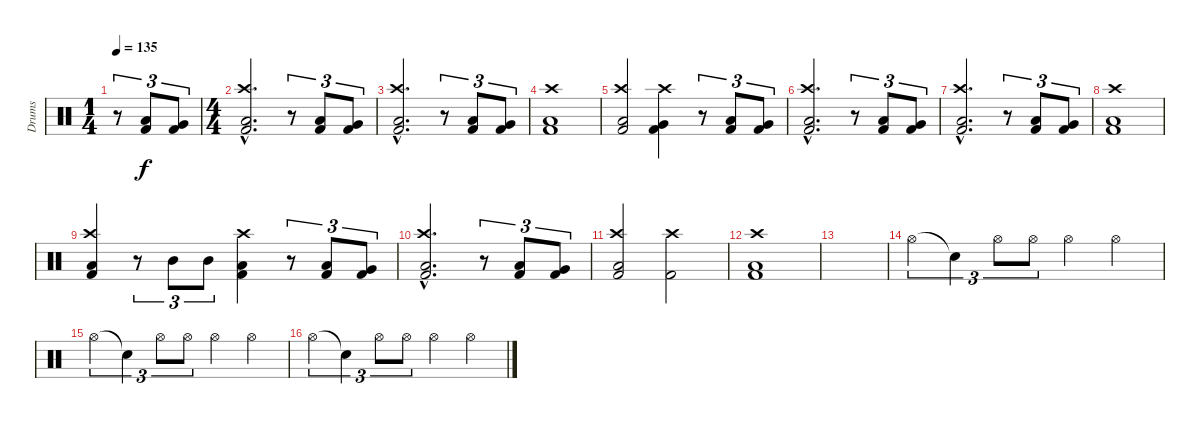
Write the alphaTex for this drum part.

\track ("Drums" "Drums") {instrument percussion}
\staff {score}
\articulation defaults
\ts (1 4)
\tempo 135
\clef neutral
\ks c
r.8{tu (3 2) dy f} ("Low Tom (hit)" "Kick (hit) 2").8{tu (3 2)} ("Very Low Tom (hit)" "Kick (hit) 2").8{tu (3 2)} |
\ts (4 4)
("Crash high (hit)"{hac} "Low Floor Tom (hit)"{hac} "Kick (hit) 2"{hac}).2{d} r.8{tu (3 2)} ("Low Tom (hit)" "Kick (hit) 2").8{tu (3 2)} ("Very Low Tom (hit)" "Kick (hit) 2").8{tu (3 2)} |
("Crash high (hit)"{hac} "Low Floor Tom (hit)"{hac} "Kick (hit) 2"{hac}).2{d} r.8{tu (3 2)} ("Low Tom (hit)" "Kick (hit) 2").8{tu (3 2)} ("Very Low Tom (hit)" "Kick (hit) 2").8{tu (3 2)} |
("Crash high (hit)" "Low Floor Tom (hit)" "Kick (hit) 2").1 |
("Crash high (hit)" "Low Floor Tom (hit)" "Kick (hit) 2").2 ("Crash high (hit)" "Very Low Tom (hit)" "Kick (hit) 2").4 r.8{tu (3 2)} ("Low Tom (hit)" "Kick (hit) 2").8{tu (3 2)} ("Very Low Tom (hit)" "Kick (hit) 2").8{tu (3 2)} |
("Crash high (hit)"{hac} "Low Floor Tom (hit)"{hac} "Kick (hit) 2"{hac}).2{d} r.8{tu (3 2)} ("Low Tom (hit)" "Kick (hit) 2").8{tu (3 2)} ("Very Low Tom (hit)" "Kick (hit) 2").8{tu (3 2)} |
("Crash high (hit)"{hac} "Low Floor Tom (hit)"{hac} "Kick (hit) 2"{hac}).2{d} r.8{tu (3 2)} ("Low Tom (hit)" "Kick (hit) 2").8{tu (3 2)} ("Very Low Tom (hit)" "Kick (hit) 2").8{tu (3 2)} |
("Crash high (hit)" "Low Floor Tom (hit)" "Kick (hit) 2").1 |
("Crash high (hit)" "Low Floor Tom (hit)" "Kick (hit) 2").4 r.8{tu (3 2)} "Mid Tom (hit)".8{tu (3 2)} "Mid Tom (hit)".8{tu (3 2)} ("Crash high (hit)" "Low Tom (hit)" "Kick (hit) 2").4 r.8{tu (3 2)} ("Low Tom (hit)" "Kick (hit) 2").8{tu (3 2)} ("Very Low Tom (hit)" "Kick (hit) 2").8{tu (3 2)} |
("Crash high (hit)"{hac} "Low Floor Tom (hit)"{hac} "Kick (hit) 2"{hac}).2{d} r.8{tu (3 2)} ("Low Tom (hit)" "Kick (hit) 2").8{tu (3 2)} ("Very Low Tom (hit)" "Kick (hit) 2").8{tu (3 2)} |
("Crash high (hit)" "Low Floor Tom (hit)" "Kick (hit) 2").2 ("Crash high (hit)" "Kick (hit) 2").2 |
("Crash high (hit)" "Low Floor Tom (hit)" "Kick (hit) 2").1 |
|
"Hi-Hat (open)".4{tu (3 2) volume 10} "Snare (hit)"{t}.4{tu (3 2)} "Hi-Hat (open)".8{tu (3 2)} "Hi-Hat (open)".8{tu (3 2)} "Hi-Hat (open)".4 "Hi-Hat (open)".4 |
"Hi-Hat (open)".4{tu (3 2) volume 10} "Snare (hit)"{t}.4{tu (3 2)} "Hi-Hat (open)".8{tu (3 2)} "Hi-Hat (open)".8{tu (3 2)} "Hi-Hat (open)".4 "Hi-Hat (open)".4 |
"Hi-Hat (open)".4{tu (3 2) volume 10} "Snare (hit)"{t}.4{tu (3 2)} "Hi-Hat (open)".8{tu (3 2)} "Hi-Hat (open)".8{tu (3 2)} "Hi-Hat (open)".4 "Hi-Hat (open)".4
